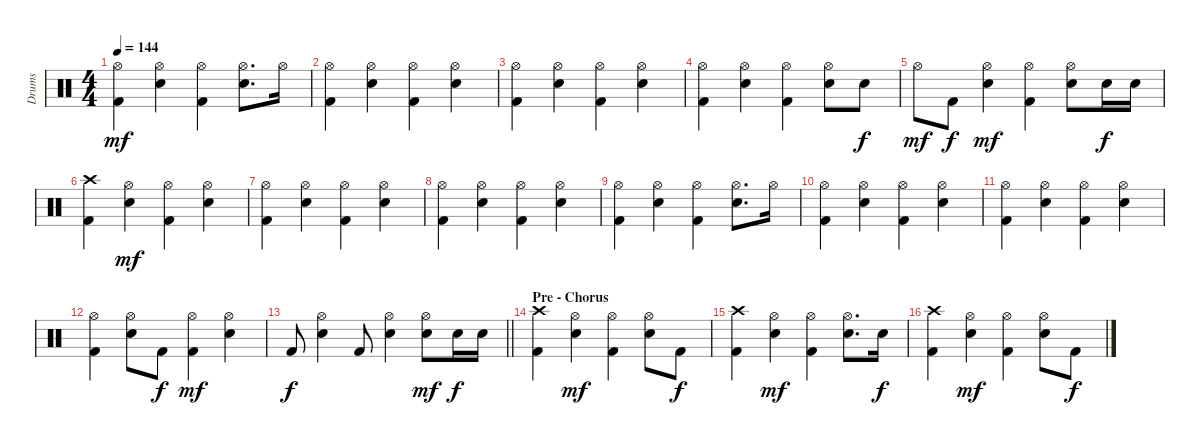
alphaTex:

\track ("Drums" "Drums") {instrument percussion}
\staff {score}
\articulation defaults
\ts (4 4)
\tempo 144
\clef neutral
\ks c
("Kick (hit) 2" "Hi-Hat (open)").4{dy mf} ("Hi-Hat (open)" "Snare (hit) 2").4 ("Kick (hit) 2" "Hi-Hat (open)").4 ("Hi-Hat (open)" "Snare (hit) 2").8{d} "Hi-Hat (open)".16 |
("Kick (hit) 2" "Hi-Hat (open)").4 ("Hi-Hat (open)" "Snare (hit) 2").4 ("Kick (hit) 2" "Hi-Hat (open)").4 ("Hi-Hat (open)" "Snare (hit) 2").4 |
("Kick (hit) 2" "Hi-Hat (open)").4 ("Hi-Hat (open)" "Snare (hit) 2").4 ("Kick (hit) 2" "Hi-Hat (open)").4 ("Hi-Hat (open)" "Snare (hit) 2").4 |
("Kick (hit) 2" "Hi-Hat (open)").4 ("Hi-Hat (open)" "Snare (hit) 2").4 ("Kick (hit) 2" "Hi-Hat (open)").4 ("Hi-Hat (open)" "Snare (hit) 2").8 "Snare (hit) 2".8{dy f} |
"Hi-Hat (open)".8{dy mf} "Kick (hit) 2".8{dy f} ("Hi-Hat (open)" "Snare (hit) 2").4{dy mf} ("Kick (hit) 2" "Hi-Hat (open)").4 ("Hi-Hat (open)" "Snare (hit) 2").8 "Snare (hit) 2".16{dy f} "Snare (hit) 2".16 |
("Kick (hit) 2" "Crash high (hit)").4 ("Hi-Hat (open)" "Snare (hit) 2").4{dy mf} ("Kick (hit) 2" "Hi-Hat (open)").4 ("Hi-Hat (open)" "Snare (hit) 2").4 |
("Kick (hit) 2" "Hi-Hat (open)").4 ("Hi-Hat (open)" "Snare (hit) 2").4 ("Kick (hit) 2" "Hi-Hat (open)").4 ("Hi-Hat (open)" "Snare (hit) 2").4 |
("Kick (hit) 2" "Hi-Hat (open)").4 ("Hi-Hat (open)" "Snare (hit) 2").4 ("Kick (hit) 2" "Hi-Hat (open)").4 ("Hi-Hat (open)" "Snare (hit) 2").4 |
("Kick (hit) 2" "Hi-Hat (open)").4 ("Hi-Hat (open)" "Snare (hit) 2").4 ("Kick (hit) 2" "Hi-Hat (open)").4 ("Hi-Hat (open)" "Snare (hit) 2").8{d} "Hi-Hat (open)".16 |
("Kick (hit) 2" "Hi-Hat (open)").4 ("Hi-Hat (open)" "Snare (hit) 2").4 ("Kick (hit) 2" "Hi-Hat (open)").4 ("Hi-Hat (open)" "Snare (hit) 2").4 |
("Kick (hit) 2" "Hi-Hat (open)").4 ("Hi-Hat (open)" "Snare (hit) 2").4 ("Kick (hit) 2" "Hi-Hat (open)").4 ("Hi-Hat (open)" "Snare (hit) 2").4 |
("Kick (hit) 2" "Hi-Hat (open)").4 ("Hi-Hat (open)" "Snare (hit) 2").8 "Kick (hit) 2".8{dy f} ("Kick (hit) 2" "Hi-Hat (open)").4{dy mf} ("Hi-Hat (open)" "Snare (hit) 2").4 |
\barLineRight lightlight "Kick (hit) 2".8{dy f}
("Hi-Hat (open)" "Snare (hit) 2").4 "Kick (hit) 2".8 ("Hi-Hat (open)" "Snare (hit) 2").4 ("Hi-Hat (open)" "Snare (hit) 2").8{dy mf} "Snare (hit) 2".16{dy f} "Snare (hit) 2".16 |
\section ("" "Pre - Chorus")
("Kick (hit) 2" "Crash high (hit)").4 ("Hi-Hat (open)" "Snare (hit) 2").4{dy mf} ("Kick (hit) 2" "Hi-Hat (open)").4 ("Hi-Hat (open)" "Snare (hit) 2").8 "Kick (hit) 2".8{dy f} |
("Kick (hit) 2" "Crash high (hit)").4 ("Hi-Hat (open)" "Snare (hit) 2").4{dy mf} ("Kick (hit) 2" "Hi-Hat (open)").4 ("Hi-Hat (open)" "Snare (hit) 2").8{d} "Snare (hit) 2".16{dy f} |
("Kick (hit) 2" "Crash high (hit)").4 ("Hi-Hat (open)" "Snare (hit) 2").4{dy mf} ("Kick (hit) 2" "Hi-Hat (open)").4 ("Hi-Hat (open)" "Snare (hit) 2").8 "Kick (hit) 2".8{dy f}
